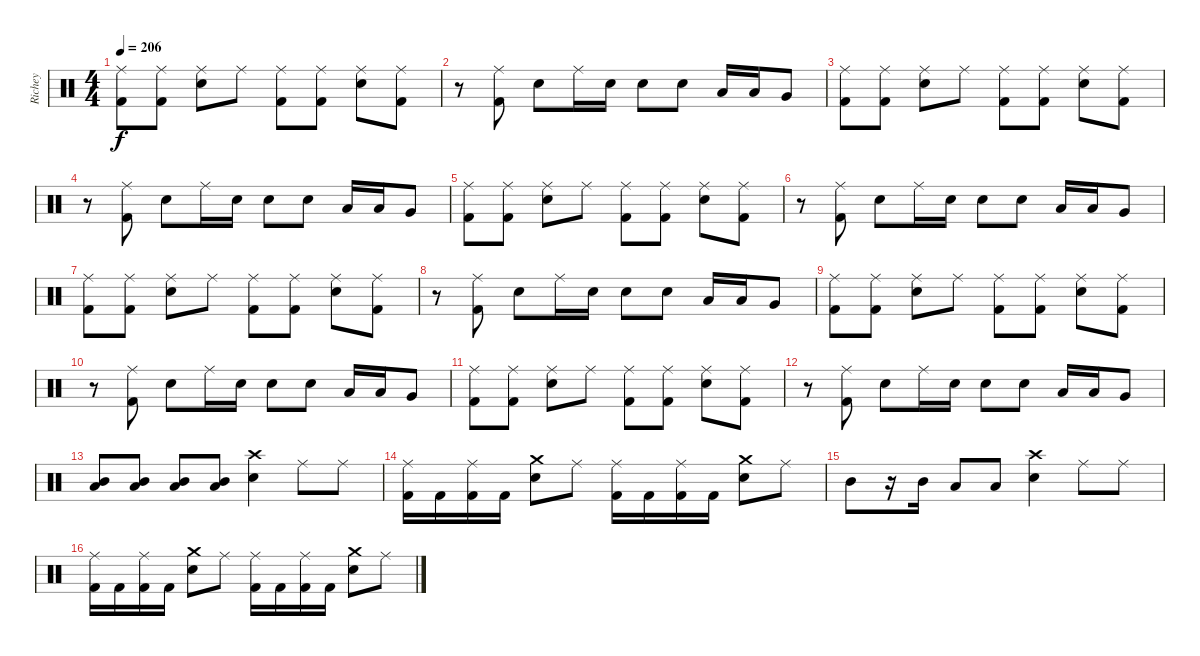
\track ("Richey" "Richey") {instrument percussion}
\staff {score}
\articulation defaults
\ts (4 4)
\tempo 206
\clef neutral
\ks c
("Ride (middle)" "Kick (hit) 2").8{dy f} ("Ride (middle)" "Kick (hit) 2").8 ("Ride (middle)" "Snare (hit) 2").8 "Ride (middle)".8 ("Ride (middle)" "Kick (hit) 2").8 ("Ride (middle)" "Kick (hit) 2").8 ("Ride (middle)" "Snare (hit) 2").8 ("Ride (middle)" "Kick (hit) 2").8 |
r.8 ("Ride (middle)" "Kick (hit) 2").8 "Snare (hit) 2".8 "Ride (middle)".16 "Snare (hit) 2".16 "Snare (hit) 2".8 "Snare (hit) 2".8 "Low Tom (hit)".16 "Low Tom (hit)".16 "Very Low Tom (hit)".8 |
("Ride (middle)" "Kick (hit) 2").8 ("Ride (middle)" "Kick (hit) 2").8 ("Ride (middle)" "Snare (hit) 2").8 "Ride (middle)".8 ("Ride (middle)" "Kick (hit) 2").8 ("Ride (middle)" "Kick (hit) 2").8 ("Ride (middle)" "Snare (hit) 2").8 ("Ride (middle)" "Kick (hit) 2").8 |
r.8 ("Ride (middle)" "Kick (hit) 2").8 "Snare (hit) 2".8 "Ride (middle)".16 "Snare (hit) 2".16 "Snare (hit) 2".8 "Snare (hit) 2".8 "Low Tom (hit)".16 "Low Tom (hit)".16 "Very Low Tom (hit)".8 |
("Ride (middle)" "Kick (hit) 2").8 ("Ride (middle)" "Kick (hit) 2").8 ("Ride (middle)" "Snare (hit) 2").8 "Ride (middle)".8 ("Ride (middle)" "Kick (hit) 2").8 ("Ride (middle)" "Kick (hit) 2").8 ("Ride (middle)" "Snare (hit) 2").8 ("Ride (middle)" "Kick (hit) 2").8 |
r.8 ("Ride (middle)" "Kick (hit) 2").8 "Snare (hit) 2".8 "Ride (middle)".16 "Snare (hit) 2".16 "Snare (hit) 2".8 "Snare (hit) 2".8 "Low Tom (hit)".16 "Low Tom (hit)".16 "Very Low Tom (hit)".8 |
("Ride (middle)" "Kick (hit) 2").8 ("Ride (middle)" "Kick (hit) 2").8 ("Ride (middle)" "Snare (hit) 2").8 "Ride (middle)".8 ("Ride (middle)" "Kick (hit) 2").8 ("Ride (middle)" "Kick (hit) 2").8 ("Ride (middle)" "Snare (hit) 2").8 ("Ride (middle)" "Kick (hit) 2").8 |
r.8 ("Ride (middle)" "Kick (hit) 2").8 "Snare (hit) 2".8 "Ride (middle)".16 "Snare (hit) 2".16 "Snare (hit) 2".8 "Snare (hit) 2".8 "Low Tom (hit)".16 "Low Tom (hit)".16 "Very Low Tom (hit)".8 |
("Ride (middle)" "Kick (hit) 2").8 ("Ride (middle)" "Kick (hit) 2").8 ("Ride (middle)" "Snare (hit) 2").8 "Ride (middle)".8 ("Ride (middle)" "Kick (hit) 2").8 ("Ride (middle)" "Kick (hit) 2").8 ("Ride (middle)" "Snare (hit) 2").8 ("Ride (middle)" "Kick (hit) 2").8 |
r.8 ("Ride (middle)" "Kick (hit) 2").8 "Snare (hit) 2".8 "Ride (middle)".16 "Snare (hit) 2".16 "Snare (hit) 2".8 "Snare (hit) 2".8 "Low Tom (hit)".16 "Low Tom (hit)".16 "Very Low Tom (hit)".8 |
("Ride (middle)" "Kick (hit) 2").8 ("Ride (middle)" "Kick (hit) 2").8 ("Ride (middle)" "Snare (hit) 2").8 "Ride (middle)".8 ("Ride (middle)" "Kick (hit) 2").8 ("Ride (middle)" "Kick (hit) 2").8 ("Ride (middle)" "Snare (hit) 2").8 ("Ride (middle)" "Kick (hit) 2").8 |
r.8 ("Ride (middle)" "Kick (hit) 2").8 "Snare (hit) 2".8 "Ride (middle)".16 "Snare (hit) 2".16 "Snare (hit) 2".8 "Snare (hit) 2".8 "Low Tom (hit)".16 "Low Tom (hit)".16 "Very Low Tom (hit)".8 |
("Mid Tom (hit)" "Low Tom (hit)").8 ("Mid Tom (hit)" "Low Tom (hit)").8 ("Mid Tom (hit)" "Low Tom (hit)").8 ("Mid Tom (hit)" "Low Tom (hit)").8 ("Crash high (hit)" "Snare (hit) 2").4 "Ride (middle)".8 "Ride (middle)".8 |
("Ride (middle)" "Kick (hit) 2").16 "Kick (hit) 2".16 ("Ride (middle)" "Kick (hit) 2").16 "Kick (hit) 2".16 ("Crash medium (hit)" "Snare (hit) 2").8 "Ride (middle)".8 ("Ride (middle)" "Kick (hit) 2").16 "Kick (hit) 2".16 ("Ride (middle)" "Kick (hit) 2").16 "Kick (hit) 2".16 ("Crash medium (hit)" "Snare (hit) 2").8 "Ride (middle)".8 |
"Mid Tom (hit)".8 r.16 "Mid Tom (hit)".16 "Low Tom (hit)".8 "Low Tom (hit)".8 ("Crash high (hit)" "Snare (hit) 2").4 "Ride (middle)".8 "Ride (middle)".8 |
("Ride (middle)" "Kick (hit) 2").16 "Kick (hit) 2".16 ("Ride (middle)" "Kick (hit) 2").16 "Kick (hit) 2".16 ("Crash medium (hit)" "Snare (hit) 2").8 "Ride (middle)".8 ("Ride (middle)" "Kick (hit) 2").16 "Kick (hit) 2".16 ("Ride (middle)" "Kick (hit) 2").16 "Kick (hit) 2".16 ("Crash medium (hit)" "Snare (hit) 2").8 "Ride (middle)".8
